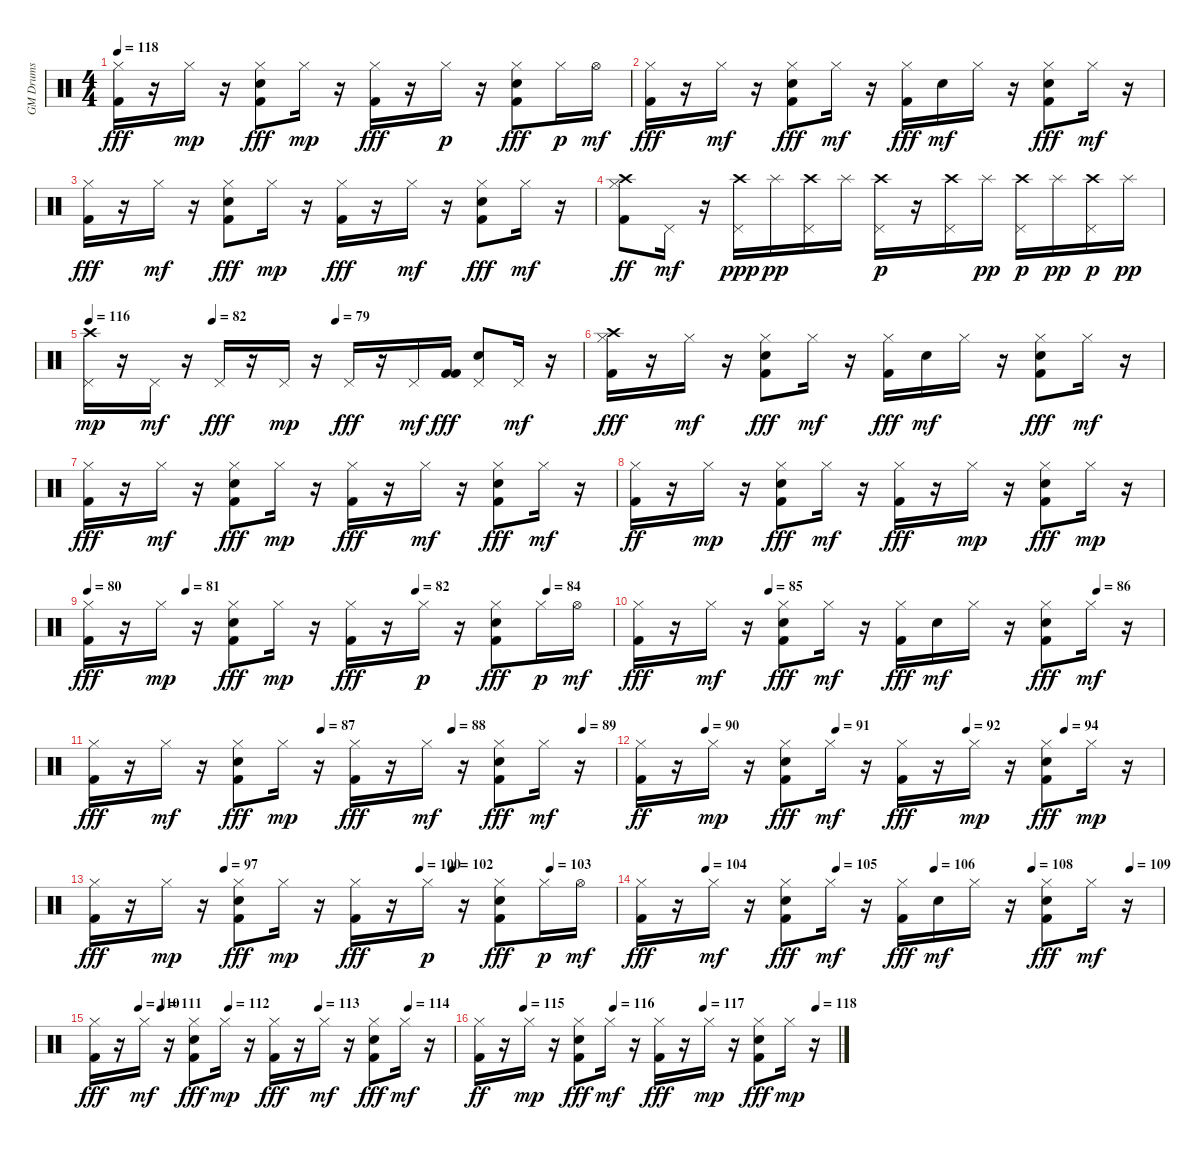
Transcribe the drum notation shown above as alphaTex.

\track ("GM Drums" "GM Drums") {instrument percussion}
\staff {score}
\articulation defaults
\ts (4 4)
\tempo 118
\clef neutral
\ks c
("Hi-Hat (closed)" "Kick (hit) 2").16{dy fff} r.16 "Hi-Hat (closed)".16{dy mp} r.16 ("Hi-Hat (closed)" "Kick (hit) 2" "Electric Snare (hit)").8{dy fff} "Hi-Hat (closed)".16{dy mp} r.16 ("Hi-Hat (closed)" "Kick (hit) 2").16{dy fff} r.16 "Hi-Hat (closed)".16{dy p} r.16 ("Hi-Hat (closed)" "Kick (hit) 2" "Electric Snare (hit)").8{dy fff} "Hi-Hat (closed)".16{dy p} "Hi-Hat (open)".16{dy mf} |
("Kick (hit) 2" "Hi-Hat (closed)").16{dy fff} r.16 "Hi-Hat (closed)".16{dy mf} r.16 ("Hi-Hat (closed)" "Kick (hit) 2" "Electric Snare (hit)").8{dy fff} "Hi-Hat (closed)".16{dy mf} r.16 ("Hi-Hat (closed)" "Kick (hit) 2").16{dy fff} "Snare (hit)".16{dy mf} "Hi-Hat (closed)".16 r.16 ("Hi-Hat (closed)" "Kick (hit) 2" "Electric Snare (hit)").8{dy fff} "Hi-Hat (closed)".16{dy mf} r.16 |
("Hi-Hat (closed)" "Kick (hit) 2").16{dy fff} r.16 "Hi-Hat (closed)".16{dy mf} r.16 ("Hi-Hat (closed)" "Kick (hit) 2" "Electric Snare (hit)").8{dy fff} "Hi-Hat (closed)".16{dy mp} r.16 ("Hi-Hat (closed)" "Kick (hit) 2").16{dy fff} r.16 "Hi-Hat (closed)".16{dy mf} r.16 ("Hi-Hat (closed)" "Kick (hit) 2" "Electric Snare (hit)").8{dy fff} "Hi-Hat (closed)".16{dy mf} r.16 |
("Hi-Hat (closed)" "Kick (hit) 2" "Crash high (hit)").8{dy ff} "Pedal Hi-Hat (hit)".16{dy mf} r.16 ("Pedal Hi-Hat (hit)" "Crash high (hit)").16{dy ppp} "Splash (hit)".16{dy pp} ("Pedal Hi-Hat (hit)" "Crash high (hit)").16 "Splash (hit)".16 ("Pedal Hi-Hat (hit)" "Crash high (hit)").16{dy p} r.16 ("Pedal Hi-Hat (hit)" "Crash high (hit)").16 "Splash (hit)".16{dy pp} ("Pedal Hi-Hat (hit)" "Crash high (hit)").16{dy p} "Splash (hit)".16{dy pp} ("Pedal Hi-Hat (hit)" "Crash high (hit)").16{dy p} "Splash (hit)".16{dy pp} |
\tempo 116
\tempo (82 0.25)
\tempo (79 0.5)
("Pedal Hi-Hat (hit)" "Crash high (hit)").16{dy mp} r.16 "Pedal Hi-Hat (hit)".16{dy mf} r.16 "Pedal Hi-Hat (hit)".16{dy fff} r.16 "Pedal Hi-Hat (hit)".16{dy mp} r.16 "Pedal Hi-Hat (hit)".16{dy fff} r.16 "Pedal Hi-Hat (hit)".16{dy mf} ("Kick (hit) 2" "Kick (hit) 2").16{dy fff} ("Pedal Hi-Hat (hit)" "Electric Snare (hit)").8 "Pedal Hi-Hat (hit)".16{dy mf} r.16 |
("Crash high (hit)" "Kick (hit) 2" "Hi-Hat (closed)").16{dy fff} r.16 "Hi-Hat (closed)".16{dy mf} r.16 ("Hi-Hat (closed)" "Kick (hit) 2" "Electric Snare (hit)").8{dy fff} "Hi-Hat (closed)".16{dy mf} r.16 ("Hi-Hat (closed)" "Kick (hit) 2").16{dy fff} "Snare (hit)".16{dy mf} "Hi-Hat (closed)".16 r.16 ("Hi-Hat (closed)" "Kick (hit) 2" "Electric Snare (hit)").8{dy fff} "Hi-Hat (closed)".16{dy mf} r.16 |
("Hi-Hat (closed)" "Kick (hit) 2").16{dy fff} r.16 "Hi-Hat (closed)".16{dy mf} r.16 ("Hi-Hat (closed)" "Kick (hit) 2" "Electric Snare (hit)").8{dy fff} "Hi-Hat (closed)".16{dy mp} r.16 ("Hi-Hat (closed)" "Kick (hit) 2").16{dy fff} r.16 "Hi-Hat (closed)".16{dy mf} r.16 ("Hi-Hat (closed)" "Kick (hit) 2" "Electric Snare (hit)").8{dy fff} "Hi-Hat (closed)".16{dy mf} r.16 |
("Hi-Hat (closed)" "Kick (hit) 2").16{dy ff} r.16 "Hi-Hat (closed)".16{dy mp} r.16 ("Hi-Hat (closed)" "Kick (hit) 2" "Electric Snare (hit)").8{dy fff} "Hi-Hat (closed)".16{dy mf} r.16 ("Hi-Hat (closed)" "Kick (hit) 2").16{dy fff} r.16 "Hi-Hat (closed)".16{dy mp} r.16 ("Hi-Hat (closed)" "Kick (hit) 2" "Electric Snare (hit)").8{dy fff} "Hi-Hat (closed)".16{dy mp} r.16 |
\tempo 80
\tempo (81 0.1875)
\tempo (82 0.625)
\tempo (84 0.875)
("Hi-Hat (closed)" "Kick (hit) 2").16{dy fff} r.16 "Hi-Hat (closed)".16{dy mp} r.16 ("Hi-Hat (closed)" "Kick (hit) 2" "Electric Snare (hit)").8{dy fff} "Hi-Hat (closed)".16{dy mp} r.16 ("Hi-Hat (closed)" "Kick (hit) 2").16{dy fff} r.16 "Hi-Hat (closed)".16{dy p} r.16 ("Hi-Hat (closed)" "Kick (hit) 2" "Electric Snare (hit)").8{dy fff} "Hi-Hat (closed)".16{dy p} "Hi-Hat (open)".16{dy mf} |
\tempo (85 0.25)
\tempo (86 0.875)
("Kick (hit) 2" "Hi-Hat (closed)").16{dy fff} r.16 "Hi-Hat (closed)".16{dy mf} r.16 ("Hi-Hat (closed)" "Kick (hit) 2" "Electric Snare (hit)").8{dy fff} "Hi-Hat (closed)".16{dy mf} r.16 ("Hi-Hat (closed)" "Kick (hit) 2").16{dy fff} "Snare (hit)".16{dy mf} "Hi-Hat (closed)".16 r.16 ("Hi-Hat (closed)" "Kick (hit) 2" "Electric Snare (hit)").8{dy fff} "Hi-Hat (closed)".16{dy mf} r.16 |
\tempo (87 0.4375)
\tempo (88 0.6875)
\tempo (89 0.9375)
("Hi-Hat (closed)" "Kick (hit) 2").16{dy fff} r.16 "Hi-Hat (closed)".16{dy mf} r.16 ("Hi-Hat (closed)" "Kick (hit) 2" "Electric Snare (hit)").8{dy fff} "Hi-Hat (closed)".16{dy mp} r.16 ("Hi-Hat (closed)" "Kick (hit) 2").16{dy fff} r.16 "Hi-Hat (closed)".16{dy mf} r.16 ("Hi-Hat (closed)" "Kick (hit) 2" "Electric Snare (hit)").8{dy fff} "Hi-Hat (closed)".16{dy mf} r.16 |
\tempo (90 0.125)
\tempo (91 0.375)
\tempo (92 0.625)
\tempo (94 0.8125)
("Hi-Hat (closed)" "Kick (hit) 2").16{dy ff} r.16 "Hi-Hat (closed)".16{dy mp} r.16 ("Hi-Hat (closed)" "Kick (hit) 2" "Electric Snare (hit)").8{dy fff} "Hi-Hat (closed)".16{dy mf} r.16 ("Hi-Hat (closed)" "Kick (hit) 2").16{dy fff} r.16 "Hi-Hat (closed)".16{dy mp} r.16 ("Hi-Hat (closed)" "Kick (hit) 2" "Electric Snare (hit)").8{dy fff} "Hi-Hat (closed)".16{dy mp} r.16 |
\tempo (97 0.25)
\tempo (100 0.625)
\tempo (102 0.6875)
\tempo (103 0.875)
("Hi-Hat (closed)" "Kick (hit) 2").16{dy fff} r.16 "Hi-Hat (closed)".16{dy mp} r.16 ("Hi-Hat (closed)" "Kick (hit) 2" "Electric Snare (hit)").8{dy fff} "Hi-Hat (closed)".16{dy mp} r.16 ("Hi-Hat (closed)" "Kick (hit) 2").16{dy fff} r.16 "Hi-Hat (closed)".16{dy p} r.16 ("Hi-Hat (closed)" "Kick (hit) 2" "Electric Snare (hit)").8{dy fff} "Hi-Hat (closed)".16{dy p} "Hi-Hat (open)".16{dy mf} |
\tempo (104 0.125)
\tempo (105 0.375)
\tempo (106 0.5625)
\tempo (108 0.75)
\tempo (109 0.9375)
("Kick (hit) 2" "Hi-Hat (closed)").16{dy fff} r.16 "Hi-Hat (closed)".16{dy mf} r.16 ("Hi-Hat (closed)" "Kick (hit) 2" "Electric Snare (hit)").8{dy fff} "Hi-Hat (closed)".16{dy mf} r.16 ("Hi-Hat (closed)" "Kick (hit) 2").16{dy fff} "Snare (hit)".16{dy mf} "Hi-Hat (closed)".16 r.16 ("Hi-Hat (closed)" "Kick (hit) 2" "Electric Snare (hit)").8{dy fff} "Hi-Hat (closed)".16{dy mf} r.16 |
\tempo (110 0.125)
\tempo (111 0.1875)
\tempo (112 0.375)
\tempo (113 0.625)
\tempo (114 0.875)
("Hi-Hat (closed)" "Kick (hit) 2").16{dy fff} r.16 "Hi-Hat (closed)".16{dy mf} r.16 ("Hi-Hat (closed)" "Kick (hit) 2" "Electric Snare (hit)").8{dy fff} "Hi-Hat (closed)".16{dy mp} r.16 ("Hi-Hat (closed)" "Kick (hit) 2").16{dy fff} r.16 "Hi-Hat (closed)".16{dy mf} r.16 ("Hi-Hat (closed)" "Kick (hit) 2" "Electric Snare (hit)").8{dy fff} "Hi-Hat (closed)".16{dy mf} r.16 |
\tempo (115 0.125)
\tempo (116 0.375)
\tempo (117 0.625)
\tempo (118 0.9375)
("Hi-Hat (closed)" "Kick (hit) 2").16{dy ff} r.16 "Hi-Hat (closed)".16{dy mp} r.16 ("Hi-Hat (closed)" "Kick (hit) 2" "Electric Snare (hit)").8{dy fff} "Hi-Hat (closed)".16{dy mf} r.16 ("Hi-Hat (closed)" "Kick (hit) 2").16{dy fff} r.16 "Hi-Hat (closed)".16{dy mp} r.16 ("Hi-Hat (closed)" "Kick (hit) 2" "Electric Snare (hit)").8{dy fff} "Hi-Hat (closed)".16{dy mp} r.16
